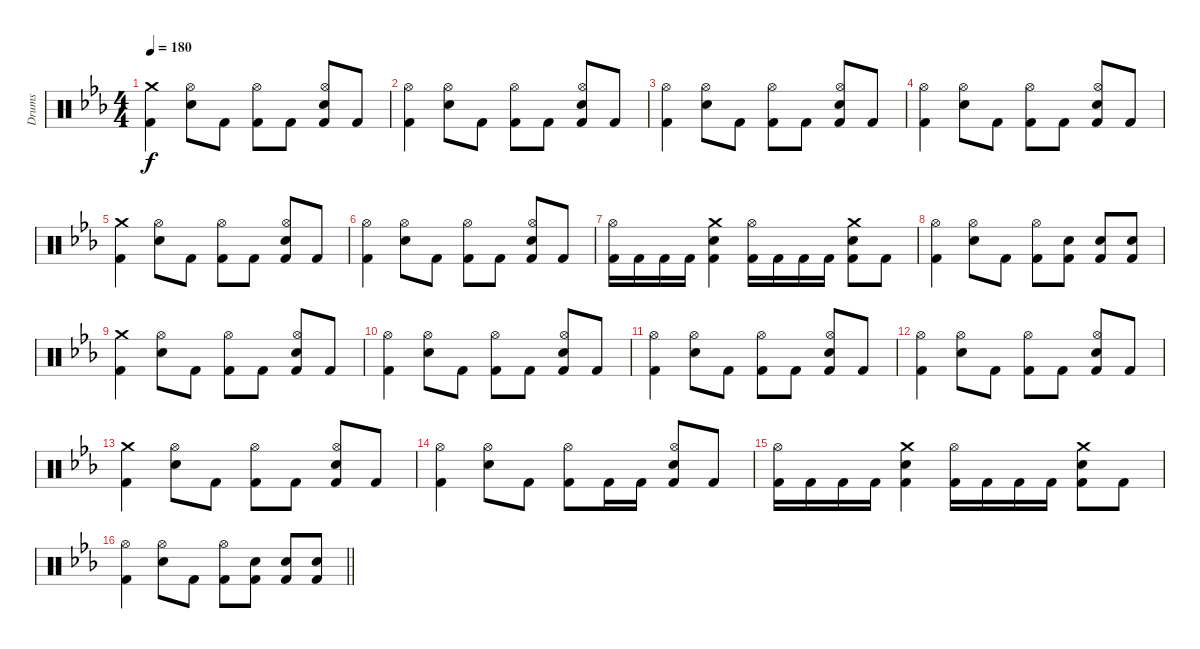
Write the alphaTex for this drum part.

\track ("Drums" "Drums") {instrument percussion}
\staff {score}
\articulation defaults
\ts (4 4)
\section ("" "")
\tempo 180
\clef neutral
\ks eb
("Crash medium (hit)" "Kick (hit) 2").4{dy f} ("Hi-Hat (open)" "Snare (hit) 2").8 "Kick (hit) 2".8 ("Hi-Hat (open)" "Kick (hit) 2").8 "Kick (hit) 2".8 ("Hi-Hat (open)" "Snare (hit) 2" "Kick (hit) 2").8 "Kick (hit) 2".8 |
("Hi-Hat (open)" "Kick (hit) 2").4 ("Hi-Hat (open)" "Snare (hit) 2").8 "Kick (hit) 2".8 ("Hi-Hat (open)" "Kick (hit) 2").8 "Kick (hit) 2".8 ("Hi-Hat (open)" "Snare (hit) 2" "Kick (hit) 2").8 "Kick (hit) 2".8 |
("Hi-Hat (open)" "Kick (hit) 2").4 ("Hi-Hat (open)" "Snare (hit) 2").8 "Kick (hit) 2".8 ("Hi-Hat (open)" "Kick (hit) 2").8 "Kick (hit) 2".8 ("Hi-Hat (open)" "Snare (hit) 2" "Kick (hit) 2").8 "Kick (hit) 2".8 |
("Hi-Hat (open)" "Kick (hit) 2").4 ("Hi-Hat (open)" "Snare (hit) 2").8 "Kick (hit) 2".8 ("Hi-Hat (open)" "Kick (hit) 2").8 "Kick (hit) 2".8 ("Hi-Hat (open)" "Snare (hit) 2" "Kick (hit) 2").8 "Kick (hit) 2".8 |
("Crash medium (hit)" "Kick (hit) 2").4 ("Hi-Hat (open)" "Snare (hit) 2").8 "Kick (hit) 2".8 ("Hi-Hat (open)" "Kick (hit) 2").8 "Kick (hit) 2".8 ("Hi-Hat (open)" "Snare (hit) 2" "Kick (hit) 2").8 "Kick (hit) 2".8 |
("Hi-Hat (open)" "Kick (hit) 2").4 ("Hi-Hat (open)" "Snare (hit) 2").8 "Kick (hit) 2".8 ("Hi-Hat (open)" "Kick (hit) 2").8 "Kick (hit) 2".8 ("Hi-Hat (open)" "Snare (hit) 2" "Kick (hit) 2").8 "Kick (hit) 2".8 |
("Hi-Hat (open)" "Kick (hit) 2").16 "Kick (hit) 2".16 "Kick (hit) 2".16 "Kick (hit) 2".16 ("Crash medium (hit)" "Snare (hit) 2" "Kick (hit) 2").4 ("Hi-Hat (open)" "Kick (hit) 2").16 "Kick (hit) 2".16 "Kick (hit) 2".16 "Kick (hit) 2".16 ("Crash medium (hit)" "Snare (hit) 2" "Kick (hit) 2").8 "Kick (hit) 2".8 |
("Hi-Hat (open)" "Kick (hit) 2").4 ("Hi-Hat (open)" "Snare (hit) 2").8 "Kick (hit) 2".8 ("Hi-Hat (open)" "Kick (hit) 2").8 ("Snare (hit) 2" "Kick (hit) 2").8 ("Snare (hit) 2" "Kick (hit) 2").8 ("Snare (hit) 2" "Kick (hit) 2").8 |
("Crash medium (hit)" "Kick (hit) 2").4 ("Hi-Hat (open)" "Snare (hit) 2").8 "Kick (hit) 2".8 ("Hi-Hat (open)" "Kick (hit) 2").8 "Kick (hit) 2".8 ("Hi-Hat (open)" "Snare (hit) 2" "Kick (hit) 2").8 "Kick (hit) 2".8 |
("Hi-Hat (open)" "Kick (hit) 2").4 ("Hi-Hat (open)" "Snare (hit) 2").8 "Kick (hit) 2".8 ("Hi-Hat (open)" "Kick (hit) 2").8 "Kick (hit) 2".8 ("Hi-Hat (open)" "Snare (hit) 2" "Kick (hit) 2").8 "Kick (hit) 2".8 |
("Hi-Hat (open)" "Kick (hit) 2").4 ("Hi-Hat (open)" "Snare (hit) 2").8 "Kick (hit) 2".8 ("Hi-Hat (open)" "Kick (hit) 2").8 "Kick (hit) 2".8 ("Hi-Hat (open)" "Snare (hit) 2" "Kick (hit) 2").8 "Kick (hit) 2".8 |
("Hi-Hat (open)" "Kick (hit) 2").4 ("Hi-Hat (open)" "Snare (hit) 2").8 "Kick (hit) 2".8 ("Hi-Hat (open)" "Kick (hit) 2").8 "Kick (hit) 2".8 ("Hi-Hat (open)" "Snare (hit) 2" "Kick (hit) 2").8 "Kick (hit) 2".8 |
("Crash medium (hit)" "Kick (hit) 2").4 ("Hi-Hat (open)" "Snare (hit) 2").8 "Kick (hit) 2".8 ("Hi-Hat (open)" "Kick (hit) 2").8 "Kick (hit) 2".8 ("Hi-Hat (open)" "Snare (hit) 2" "Kick (hit) 2").8 "Kick (hit) 2".8 |
("Hi-Hat (open)" "Kick (hit) 2").4 ("Hi-Hat (open)" "Snare (hit) 2").8 "Kick (hit) 2".8 ("Hi-Hat (open)" "Kick (hit) 2").8 "Kick (hit) 2".16 "Kick (hit) 2".16 ("Hi-Hat (open)" "Snare (hit) 2" "Kick (hit) 2").8 "Kick (hit) 2".8 |
("Hi-Hat (open)" "Kick (hit) 2").16 "Kick (hit) 2".16 "Kick (hit) 2".16 "Kick (hit) 2".16 ("Crash medium (hit)" "Snare (hit) 2" "Kick (hit) 2").4 ("Hi-Hat (open)" "Kick (hit) 2").16 "Kick (hit) 2".16 "Kick (hit) 2".16 "Kick (hit) 2".16 ("Crash medium (hit)" "Snare (hit) 2" "Kick (hit) 2").8 "Kick (hit) 2".8 |
\barLineRight lightlight
("Hi-Hat (open)" "Kick (hit) 2").4 ("Hi-Hat (open)" "Snare (hit) 2").8 "Kick (hit) 2".8 ("Hi-Hat (open)" "Kick (hit) 2").8 ("Snare (hit) 2" "Kick (hit) 2").8 ("Snare (hit) 2" "Kick (hit) 2").8 ("Snare (hit) 2" "Kick (hit) 2").8
